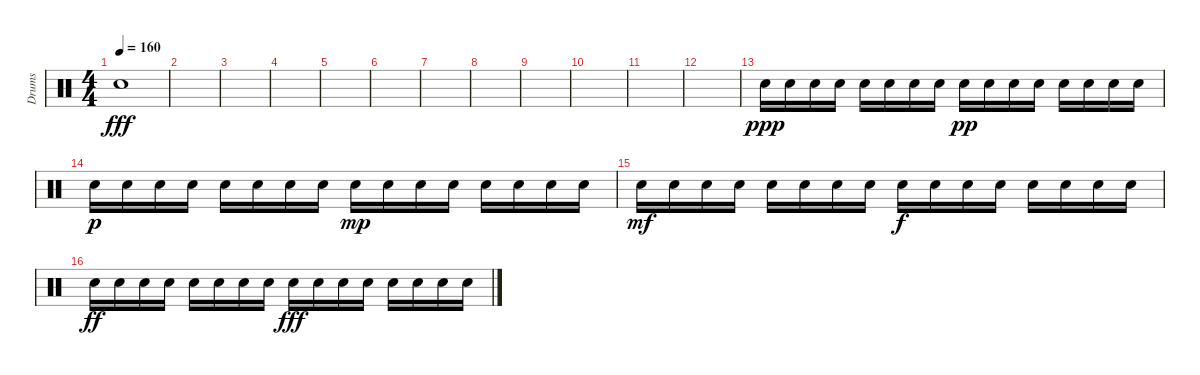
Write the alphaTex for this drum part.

\track ("Drums" "Drums") {instrument percussion}
\staff {score}
\articulation defaults
\ts (4 4)
\tempo 160
\clef neutral
\ks c "Electric Snare (hit)".1{dy fff}
|
|
|
|
|
|
|
|
|
|
|
|
"Electric Snare (hit)".16{dy ppp} "Electric Snare (hit)".16 "Electric Snare (hit)".16 "Electric Snare (hit)".16 "Electric Snare (hit)".16 "Electric Snare (hit)".16 "Electric Snare (hit)".16 "Electric Snare (hit)".16 "Electric Snare (hit)".16{dy pp} "Electric Snare (hit)".16 "Electric Snare (hit)".16 "Electric Snare (hit)".16 "Electric Snare (hit)".16 "Electric Snare (hit)".16 "Electric Snare (hit)".16 "Electric Snare (hit)".16 |
"Electric Snare (hit)".16{dy p} "Electric Snare (hit)".16 "Electric Snare (hit)".16 "Electric Snare (hit)".16 "Electric Snare (hit)".16 "Electric Snare (hit)".16 "Electric Snare (hit)".16 "Electric Snare (hit)".16 "Electric Snare (hit)".16{dy mp} "Electric Snare (hit)".16 "Electric Snare (hit)".16 "Electric Snare (hit)".16 "Electric Snare (hit)".16 "Electric Snare (hit)".16 "Electric Snare (hit)".16 "Electric Snare (hit)".16 |
"Electric Snare (hit)".16{dy mf} "Electric Snare (hit)".16 "Electric Snare (hit)".16 "Electric Snare (hit)".16 "Electric Snare (hit)".16 "Electric Snare (hit)".16 "Electric Snare (hit)".16 "Electric Snare (hit)".16 "Electric Snare (hit)".16{dy f} "Electric Snare (hit)".16 "Electric Snare (hit)".16 "Electric Snare (hit)".16 "Electric Snare (hit)".16 "Electric Snare (hit)".16 "Electric Snare (hit)".16 "Electric Snare (hit)".16 |
"Electric Snare (hit)".16{dy ff} "Electric Snare (hit)".16 "Electric Snare (hit)".16 "Electric Snare (hit)".16 "Electric Snare (hit)".16 "Electric Snare (hit)".16 "Electric Snare (hit)".16 "Electric Snare (hit)".16 "Electric Snare (hit)".16{dy fff} "Electric Snare (hit)".16 "Electric Snare (hit)".16 "Electric Snare (hit)".16 "Electric Snare (hit)".16 "Electric Snare (hit)".16 "Electric Snare (hit)".16 "Electric Snare (hit)".16
